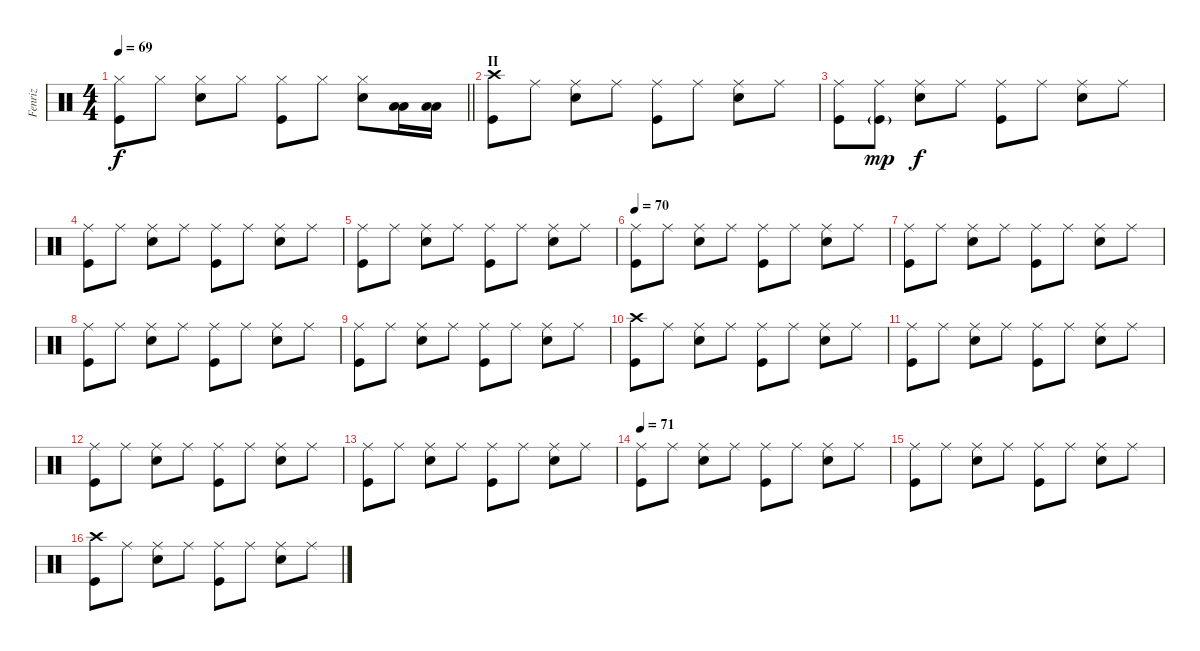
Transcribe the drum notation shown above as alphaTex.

\track ("Fenriz" "Fenriz") {instrument percussion}
\staff {score}
\articulation defaults
\ts (4 4)
\tempo 69
\clef neutral
\barLineRight lightlight
\ks c
("Kick (hit)" "Hi-Hat (closed)").8{dy f} "Hi-Hat (closed)".8 ("Snare (hit) 2" "Hi-Hat (closed)").8 "Hi-Hat (closed)".8 ("Kick (hit)" "Hi-Hat (closed)").8 "Hi-Hat (closed)".8 ("Snare (hit) 2" "Hi-Hat (closed)").8 ("Low Floor Tom (hit)" "Low Tom (hit)").16 ("Low Floor Tom (hit)" "Low Tom (hit)").16 |
\section ("" "II")
("Kick (hit)" "Crash high (hit)").8 "Ride (middle)".8 ("Snare (hit) 2" "Ride (middle)").8 "Ride (middle)".8 ("Kick (hit)" "Ride (middle)").8 "Ride (middle)".8 ("Snare (hit) 2" "Ride (middle)").8 "Ride (middle)".8 |
("Kick (hit)" "Ride (middle)").8 ("Kick (hit)"{g} "Ride (middle)").8{dy mp} ("Snare (hit) 2" "Ride (middle)").8{dy f} "Ride (middle)".8 ("Kick (hit)" "Ride (middle)").8 "Ride (middle)".8 ("Snare (hit) 2" "Ride (middle)").8 "Ride (middle)".8 |
("Kick (hit)" "Ride (middle)").8 "Ride (middle)".8 ("Snare (hit) 2" "Ride (middle)").8 "Ride (middle)".8 ("Kick (hit)" "Ride (middle)").8 "Ride (middle)".8 ("Snare (hit) 2" "Ride (middle)").8 "Ride (middle)".8 |
("Kick (hit)" "Ride (middle)").8 "Ride (middle)".8 ("Snare (hit) 2" "Ride (middle)").8 "Ride (middle)".8 ("Kick (hit)" "Ride (middle)").8 "Ride (middle)".8 ("Snare (hit) 2" "Ride (middle)").8 "Ride (middle)".8 |
\tempo 70
("Kick (hit)" "Ride (middle)").8 "Ride (middle)".8 ("Snare (hit) 2" "Ride (middle)").8 "Ride (middle)".8 ("Kick (hit)" "Ride (middle)").8 "Ride (middle)".8 ("Snare (hit) 2" "Ride (middle)").8 "Ride (middle)".8 |
("Kick (hit)" "Ride (middle)").8 "Ride (middle)".8 ("Snare (hit) 2" "Ride (middle)").8 "Ride (middle)".8 ("Kick (hit)" "Ride (middle)").8 "Ride (middle)".8 ("Snare (hit) 2" "Ride (middle)").8 "Ride (middle)".8 |
("Kick (hit)" "Ride (middle)").8 "Ride (middle)".8 ("Snare (hit) 2" "Ride (middle)").8 "Ride (middle)".8 ("Kick (hit)" "Ride (middle)").8 "Ride (middle)".8 ("Snare (hit) 2" "Ride (middle)").8 "Ride (middle)".8 |
("Kick (hit)" "Ride (middle)").8 "Ride (middle)".8 ("Snare (hit) 2" "Ride (middle)").8 "Ride (middle)".8 ("Kick (hit)" "Ride (middle)").8 "Ride (middle)".8 ("Snare (hit) 2" "Ride (middle)").8 "Ride (middle)".8 |
("Kick (hit)" "Crash high (hit)").8 "Ride (middle)".8 ("Snare (hit) 2" "Ride (middle)").8 "Ride (middle)".8 ("Kick (hit)" "Ride (middle)").8 "Ride (middle)".8 ("Snare (hit) 2" "Ride (middle)").8 "Ride (middle)".8 |
("Kick (hit)" "Ride (middle)").8 "Ride (middle)".8 ("Snare (hit) 2" "Ride (middle)").8 "Ride (middle)".8 ("Kick (hit)" "Ride (middle)").8 "Ride (middle)".8 ("Snare (hit) 2" "Ride (middle)").8 "Ride (middle)".8 |
("Kick (hit)" "Ride (middle)").8 "Ride (middle)".8 ("Snare (hit) 2" "Ride (middle)").8 "Ride (middle)".8 ("Kick (hit)" "Ride (middle)").8 "Ride (middle)".8 ("Snare (hit) 2" "Ride (middle)").8 "Ride (middle)".8 |
("Kick (hit)" "Ride (middle)").8 "Ride (middle)".8 ("Snare (hit) 2" "Ride (middle)").8 "Ride (middle)".8 ("Kick (hit)" "Ride (middle)").8 "Ride (middle)".8 ("Snare (hit) 2" "Ride (middle)").8 "Ride (middle)".8 |
\tempo 71
("Kick (hit)" "Ride (middle)").8 "Ride (middle)".8 ("Snare (hit) 2" "Ride (middle)").8 "Ride (middle)".8 ("Kick (hit)" "Ride (middle)").8 "Ride (middle)".8 ("Snare (hit) 2" "Ride (middle)").8 "Ride (middle)".8 |
("Kick (hit)" "Ride (middle)").8 "Ride (middle)".8 ("Snare (hit) 2" "Ride (middle)").8 "Ride (middle)".8 ("Kick (hit)" "Ride (middle)").8 "Ride (middle)".8 ("Snare (hit) 2" "Ride (middle)").8 "Ride (middle)".8 |
("Kick (hit)" "Crash high (hit)").8 "Ride (middle)".8 ("Snare (hit) 2" "Ride (middle)").8 "Ride (middle)".8 ("Kick (hit)" "Ride (middle)").8 "Ride (middle)".8 ("Snare (hit) 2" "Ride (middle)").8 "Ride (middle)".8
